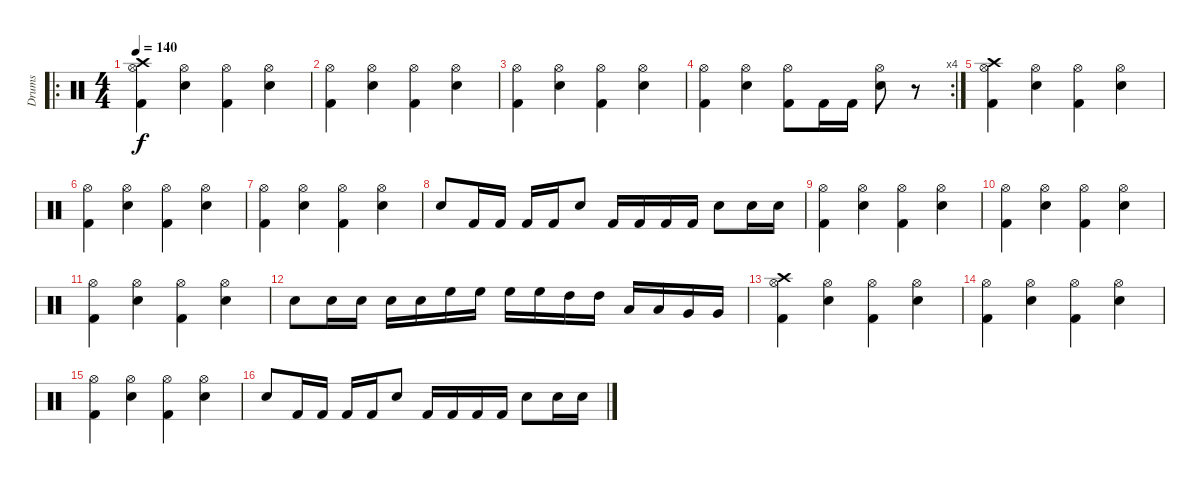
\track ("Drums" "Drums") {instrument percussion}
\staff {score}
\articulation defaults
\ro
\ts (4 4)
\tempo 140
\clef neutral
\ks c
("Crash high (hit)" "Hi-Hat (open)" "Kick (hit) 2").4{dy f} ("Hi-Hat (open)" "Snare (hit) 2").4 ("Hi-Hat (open)" "Kick (hit) 2").4 ("Hi-Hat (open)" "Snare (hit) 2").4 |
("Hi-Hat (open)" "Kick (hit) 2").4 ("Hi-Hat (open)" "Snare (hit) 2").4 ("Hi-Hat (open)" "Kick (hit) 2").4 ("Hi-Hat (open)" "Snare (hit) 2").4 |
("Hi-Hat (open)" "Kick (hit) 2").4 ("Hi-Hat (open)" "Snare (hit) 2").4 ("Hi-Hat (open)" "Kick (hit) 2").4 ("Hi-Hat (open)" "Snare (hit) 2").4 |
\rc 4
("Hi-Hat (open)" "Kick (hit) 2").4 ("Hi-Hat (open)" "Snare (hit) 2").4 ("Hi-Hat (open)" "Kick (hit) 2").8 "Kick (hit) 2".16 "Kick (hit) 2".16 ("Hi-Hat (open)" "Snare (hit) 2").8 r.8 |
("Crash high (hit)" "Hi-Hat (open)" "Kick (hit) 2").4 ("Hi-Hat (open)" "Snare (hit) 2").4 ("Hi-Hat (open)" "Kick (hit) 2").4 ("Hi-Hat (open)" "Snare (hit) 2").4 |
("Hi-Hat (open)" "Kick (hit) 2").4 ("Hi-Hat (open)" "Snare (hit) 2").4 ("Hi-Hat (open)" "Kick (hit) 2").4 ("Hi-Hat (open)" "Snare (hit) 2").4 |
("Hi-Hat (open)" "Kick (hit) 2").4 ("Hi-Hat (open)" "Snare (hit) 2").4 ("Hi-Hat (open)" "Kick (hit) 2").4 ("Hi-Hat (open)" "Snare (hit) 2").4 |
"Snare (hit) 2".8 "Kick (hit) 2".16 "Kick (hit) 2".16 "Kick (hit) 2".16 "Kick (hit) 2".16 "Snare (hit) 2".8 "Kick (hit) 2".16 "Kick (hit) 2".16 "Kick (hit) 2".16 "Kick (hit) 2".16 "Snare (hit) 2".8 "Snare (hit) 2".16 "Snare (hit) 2".16 |
("Hi-Hat (open)" "Kick (hit) 2").4 ("Hi-Hat (open)" "Snare (hit) 2").4 ("Hi-Hat (open)" "Kick (hit) 2").4 ("Hi-Hat (open)" "Snare (hit) 2").4 |
("Hi-Hat (open)" "Kick (hit) 2").4 ("Hi-Hat (open)" "Snare (hit) 2").4 ("Hi-Hat (open)" "Kick (hit) 2").4 ("Hi-Hat (open)" "Snare (hit) 2").4 |
("Hi-Hat (open)" "Kick (hit) 2").4 ("Hi-Hat (open)" "Snare (hit) 2").4 ("Hi-Hat (open)" "Kick (hit) 2").4 ("Hi-Hat (open)" "Snare (hit) 2").4 |
"Snare (hit) 2".8 "Snare (hit) 2".16 "Snare (hit) 2".16 "Snare (hit) 2".16 "Snare (hit) 2".16 "High Floor Tom (hit)".16 "High Floor Tom (hit)".16 "High Floor Tom (hit)".16 "High Floor Tom (hit)".16 "High Tom (hit)".16 "High Tom (hit)".16 "Low Tom (hit)".16 "Low Tom (hit)".16 "Very Low Tom (hit)".16 "Very Low Tom (hit)".16 |
("Crash high (hit)" "Hi-Hat (open)" "Kick (hit) 2").4 ("Hi-Hat (open)" "Snare (hit) 2").4 ("Hi-Hat (open)" "Kick (hit) 2").4 ("Hi-Hat (open)" "Snare (hit) 2").4 |
("Hi-Hat (open)" "Kick (hit) 2").4 ("Hi-Hat (open)" "Snare (hit) 2").4 ("Hi-Hat (open)" "Kick (hit) 2").4 ("Hi-Hat (open)" "Snare (hit) 2").4 |
("Hi-Hat (open)" "Kick (hit) 2").4 ("Hi-Hat (open)" "Snare (hit) 2").4 ("Hi-Hat (open)" "Kick (hit) 2").4 ("Hi-Hat (open)" "Snare (hit) 2").4 |
"Snare (hit) 2".8 "Kick (hit) 2".16 "Kick (hit) 2".16 "Kick (hit) 2".16 "Kick (hit) 2".16 "Snare (hit) 2".8 "Kick (hit) 2".16 "Kick (hit) 2".16 "Kick (hit) 2".16 "Kick (hit) 2".16 "Snare (hit) 2".8 "Snare (hit) 2".16 "Snare (hit) 2".16
